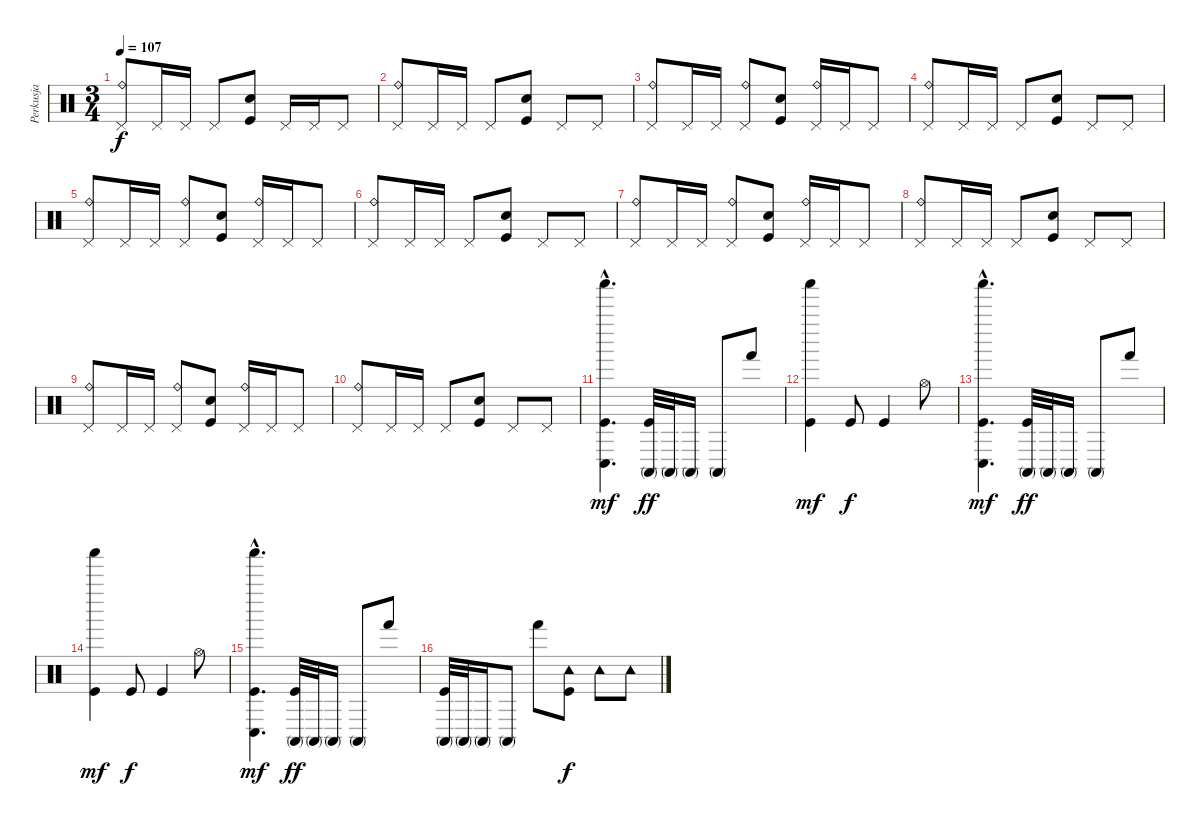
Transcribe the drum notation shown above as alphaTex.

\track ("Perkusja" "Perkusja") {instrument percussion}
\staff {score}
\articulation defaults
\ts (3 4)
\tempo 107
\clef neutral
\ks c
("Pedal Hi-Hat (hit)" "Ride (bell)").8{dy f} "Pedal Hi-Hat (hit)".16 "Pedal Hi-Hat (hit)".16 "Pedal Hi-Hat (hit)".8 ("Electric Snare (hit)" "Kick (hit)").8 "Pedal Hi-Hat (hit)".16 "Pedal Hi-Hat (hit)".16 "Pedal Hi-Hat (hit)".8 |
("Pedal Hi-Hat (hit)" "Ride (bell)").8 "Pedal Hi-Hat (hit)".16 "Pedal Hi-Hat (hit)".16 "Pedal Hi-Hat (hit)".8 ("Electric Snare (hit)" "Kick (hit)").8 "Pedal Hi-Hat (hit)".8 "Pedal Hi-Hat (hit)".8 |
("Pedal Hi-Hat (hit)" "Ride (bell)").8 "Pedal Hi-Hat (hit)".16 "Pedal Hi-Hat (hit)".16 ("Pedal Hi-Hat (hit)" "Ride (bell)").8 ("Electric Snare (hit)" "Kick (hit)").8 ("Pedal Hi-Hat (hit)" "Ride (bell)").16 "Pedal Hi-Hat (hit)".16 "Pedal Hi-Hat (hit)".8 |
("Pedal Hi-Hat (hit)" "Ride (bell)").8 "Pedal Hi-Hat (hit)".16 "Pedal Hi-Hat (hit)".16 "Pedal Hi-Hat (hit)".8 ("Electric Snare (hit)" "Kick (hit)").8 "Pedal Hi-Hat (hit)".8 "Pedal Hi-Hat (hit)".8 |
("Pedal Hi-Hat (hit)" "Ride (bell)").8 "Pedal Hi-Hat (hit)".16 "Pedal Hi-Hat (hit)".16 ("Pedal Hi-Hat (hit)" "Ride (bell)").8 ("Electric Snare (hit)" "Kick (hit)").8 ("Pedal Hi-Hat (hit)" "Ride (bell)").16 "Pedal Hi-Hat (hit)".16 "Pedal Hi-Hat (hit)".8 |
("Pedal Hi-Hat (hit)" "Ride (bell)").8 "Pedal Hi-Hat (hit)".16 "Pedal Hi-Hat (hit)".16 "Pedal Hi-Hat (hit)".8 ("Electric Snare (hit)" "Kick (hit)").8 "Pedal Hi-Hat (hit)".8 "Pedal Hi-Hat (hit)".8 |
("Pedal Hi-Hat (hit)" "Ride (bell)").8 "Pedal Hi-Hat (hit)".16 "Pedal Hi-Hat (hit)".16 ("Pedal Hi-Hat (hit)" "Ride (bell)").8 ("Electric Snare (hit)" "Kick (hit)").8 ("Pedal Hi-Hat (hit)" "Ride (bell)").16 "Pedal Hi-Hat (hit)".16 "Pedal Hi-Hat (hit)".8 |
("Pedal Hi-Hat (hit)" "Ride (bell)").8 "Pedal Hi-Hat (hit)".16 "Pedal Hi-Hat (hit)".16 "Pedal Hi-Hat (hit)".8 ("Electric Snare (hit)" "Kick (hit)").8 "Pedal Hi-Hat (hit)".8 "Pedal Hi-Hat (hit)".8 |
("Pedal Hi-Hat (hit)" "Ride (bell)").8 "Pedal Hi-Hat (hit)".16 "Pedal Hi-Hat (hit)".16 ("Pedal Hi-Hat (hit)" "Ride (bell)").8 ("Electric Snare (hit)" "Kick (hit)").8 ("Pedal Hi-Hat (hit)" "Ride (bell)").16 "Pedal Hi-Hat (hit)".16 "Pedal Hi-Hat (hit)".8 |
("Pedal Hi-Hat (hit)" "Ride (bell)").8 "Pedal Hi-Hat (hit)".16 "Pedal Hi-Hat (hit)".16 "Pedal Hi-Hat (hit)".8 ("Electric Snare (hit)" "Kick (hit)").8 "Pedal Hi-Hat (hit)".8 "Pedal Hi-Hat (hit)".8 |
("Conga low (hit)"{hac} "Shaker (hit)"{hac} "Kick (hit)"{hac}).4{d dy mf} ("Conga high (mute)" "Kick (hit)").32{dy ff} "Conga high (mute)".32 "Conga high (mute)".16 "Conga high (mute)".8 "Hand (hit)".8 |
("Shaker (hit)" "Kick (hit)").4{dy mf} "Kick (hit)".8{dy f} "Kick (hit)".4 "Hi-Hat (open)".8 |
("Conga low (hit)"{hac} "Shaker (hit)"{hac} "Kick (hit)"{hac}).4{d dy mf} ("Conga high (mute)" "Kick (hit)").32{dy ff} "Conga high (mute)".32 "Conga high (mute)".16 "Conga high (mute)".8 "Hand (hit)".8 |
("Shaker (hit)" "Kick (hit)").4{dy mf} "Kick (hit)".8{dy f} "Kick (hit)".4 "Hi-Hat (open)".8 |
("Conga low (hit)"{hac} "Shaker (hit)"{hac} "Kick (hit)"{hac}).4{d dy mf} ("Conga high (mute)" "Kick (hit)").32{dy ff} "Conga high (mute)".32 "Conga high (mute)".16 "Conga high (mute)".8 "Hand (hit)".8 |
("Conga high (mute)" "Kick (hit)").32 "Conga high (mute)".32 "Conga high (mute)".16 "Conga high (mute)".8 "Hand (hit)".8 ("Tambourine (hit)" "Kick (hit)").8{dy f} "Tambourine (hit)".8 "Tambourine (hit)".8
